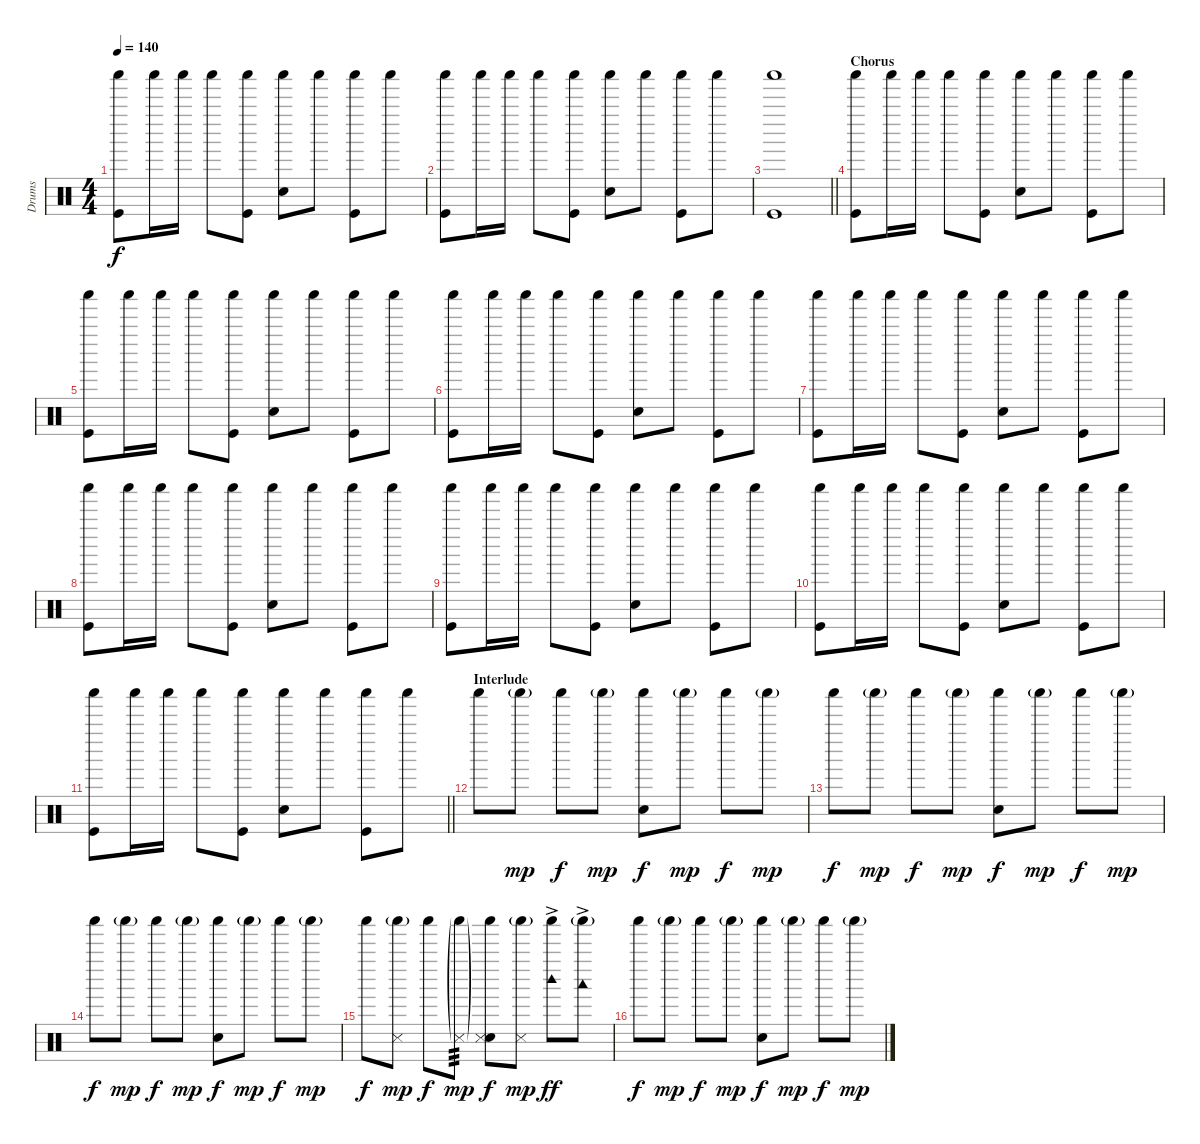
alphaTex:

\track ("Drums" "Drums") {instrument percussion}
\staff {score}
\articulation defaults
\ts (4 4)
\tempo 140
\clef neutral
\ks c
("Shaker (hit)" "Kick (hit)").8{dy f} "Shaker (hit)".16 "Shaker (hit)".16 "Shaker (hit)".8 ("Shaker (hit)" "Kick (hit)").8 ("Shaker (hit)" "Hand Clap (hit)").8 "Shaker (hit)".8 ("Shaker (hit)" "Kick (hit)").8 "Shaker (hit)".8 |
("Shaker (hit)" "Kick (hit)").8 "Shaker (hit)".16 "Shaker (hit)".16 "Shaker (hit)".8 ("Shaker (hit)" "Kick (hit)").8 ("Shaker (hit)" "Hand Clap (hit)").8 "Shaker (hit)".8 ("Shaker (hit)" "Kick (hit)").8 "Shaker (hit)".8 |
\barLineRight lightlight
("Shaker (hit)" "Kick (hit)").1 |
\section ("" "Chorus")
("Shaker (hit)" "Kick (hit)").8 "Shaker (hit)".16 "Shaker (hit)".16 "Shaker (hit)".8 ("Shaker (hit)" "Kick (hit)").8 ("Shaker (hit)" "Hand Clap (hit)").8 "Shaker (hit)".8 ("Shaker (hit)" "Kick (hit)").8 "Shaker (hit)".8 |
("Shaker (hit)" "Kick (hit)").8 "Shaker (hit)".16 "Shaker (hit)".16 "Shaker (hit)".8 ("Shaker (hit)" "Kick (hit)").8 ("Shaker (hit)" "Hand Clap (hit)").8 "Shaker (hit)".8 ("Shaker (hit)" "Kick (hit)").8 "Shaker (hit)".8 |
("Shaker (hit)" "Kick (hit)").8 "Shaker (hit)".16 "Shaker (hit)".16 "Shaker (hit)".8 ("Shaker (hit)" "Kick (hit)").8 ("Shaker (hit)" "Hand Clap (hit)").8 "Shaker (hit)".8 ("Shaker (hit)" "Kick (hit)").8 "Shaker (hit)".8 |
("Shaker (hit)" "Kick (hit)").8 "Shaker (hit)".16 "Shaker (hit)".16 "Shaker (hit)".8 ("Shaker (hit)" "Kick (hit)").8 ("Shaker (hit)" "Hand Clap (hit)").8 "Shaker (hit)".8 ("Shaker (hit)" "Kick (hit)").8 "Shaker (hit)".8 |
("Shaker (hit)" "Kick (hit)").8 "Shaker (hit)".16 "Shaker (hit)".16 "Shaker (hit)".8 ("Shaker (hit)" "Kick (hit)").8 ("Shaker (hit)" "Hand Clap (hit)").8 "Shaker (hit)".8 ("Shaker (hit)" "Kick (hit)").8 "Shaker (hit)".8 |
("Shaker (hit)" "Kick (hit)").8 "Shaker (hit)".16 "Shaker (hit)".16 "Shaker (hit)".8 ("Shaker (hit)" "Kick (hit)").8 ("Shaker (hit)" "Hand Clap (hit)").8 "Shaker (hit)".8 ("Shaker (hit)" "Kick (hit)").8 "Shaker (hit)".8 |
("Shaker (hit)" "Kick (hit)").8 "Shaker (hit)".16 "Shaker (hit)".16 "Shaker (hit)".8 ("Shaker (hit)" "Kick (hit)").8 ("Shaker (hit)" "Hand Clap (hit)").8 "Shaker (hit)".8 ("Shaker (hit)" "Kick (hit)").8 "Shaker (hit)".8 |
\barLineRight lightlight
("Shaker (hit)" "Kick (hit)").8 "Shaker (hit)".16 "Shaker (hit)".16 "Shaker (hit)".8 ("Shaker (hit)" "Kick (hit)").8 ("Shaker (hit)" "Hand Clap (hit)").8 "Shaker (hit)".8 ("Shaker (hit)" "Kick (hit)").8 "Shaker (hit)".8 |
\section ("" "Interlude")
"Shaker (hit)".8 "Shaker (hit)"{g}.8{dy mp} "Shaker (hit)".8{dy f} "Shaker (hit)"{g}.8{dy mp} ("Shaker (hit)" "Hand Clap (hit)").8{dy f} "Shaker (hit)"{g}.8{dy mp} "Shaker (hit)".8{dy f} "Shaker (hit)"{g}.8{dy mp} |
"Shaker (hit)".8{dy f} "Shaker (hit)"{g}.8{dy mp} "Shaker (hit)".8{dy f} "Shaker (hit)"{g}.8{dy mp} ("Shaker (hit)" "Hand Clap (hit)").8{dy f} "Shaker (hit)"{g}.8{dy mp} "Shaker (hit)".8{dy f} "Shaker (hit)"{g}.8{dy mp} |
"Shaker (hit)".8{dy f} "Shaker (hit)"{g}.8{dy mp} "Shaker (hit)".8{dy f} "Shaker (hit)"{g}.8{dy mp} ("Shaker (hit)" "Hand Clap (hit)").8{dy f} "Shaker (hit)"{g}.8{dy mp} "Shaker (hit)".8{dy f} "Shaker (hit)"{g}.8{dy mp} |
"Shaker (hit)".8{dy f} ("Shaker (hit)"{g} "Snare (side stick) 3").8{dy mp} "Shaker (hit)".8{dy f} ("Shaker (hit)"{g} "Snare (side stick) 3"{g}).8{tp 3 dy mp} ("Shaker (hit)" "Hand Clap (hit)" "Snare (side stick) 3").8{dy f} ("Shaker (hit)"{g} "Snare (side stick) 3").8{dy mp} ("Shaker (hit)" "Woodblock high (hit)"{ac}).8{dy ff} ("Shaker (hit)"{g} "Woodblock low (hit)"{ac}).8 |
"Shaker (hit)".8{dy f} "Shaker (hit)"{g}.8{dy mp} "Shaker (hit)".8{dy f} "Shaker (hit)"{g}.8{dy mp} ("Shaker (hit)" "Hand Clap (hit)").8{dy f} "Shaker (hit)"{g}.8{dy mp} "Shaker (hit)".8{dy f} "Shaker (hit)"{g}.8{dy mp}
